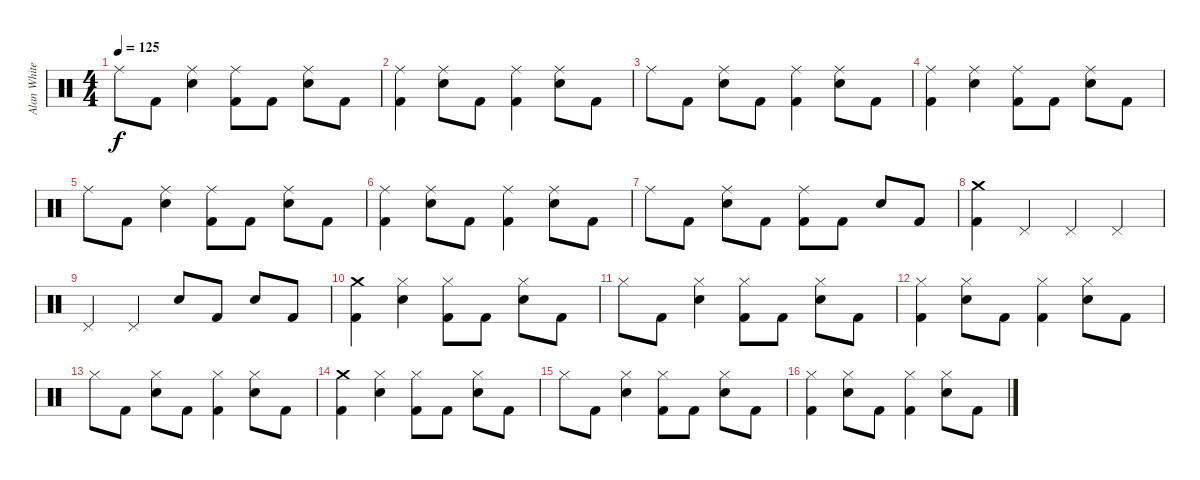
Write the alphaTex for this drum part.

\track ("Alan White" "Alan White") {instrument percussion}
\staff {score}
\articulation defaults
\ts (4 4)
\tempo 125
\clef neutral
\ks c "Ride (middle)".8{dy f} "Kick (hit) 2".8
("Ride (middle)" "Snare (hit) 2").4 ("Ride (middle)" "Kick (hit) 2").8 "Kick (hit) 2".8 ("Ride (middle)" "Snare (hit) 2").8 "Kick (hit) 2".8 |
("Ride (middle)" "Kick (hit) 2").4 ("Ride (middle)" "Snare (hit) 2").8 "Kick (hit) 2".8 ("Ride (middle)" "Kick (hit) 2").4 ("Ride (middle)" "Snare (hit) 2").8 "Kick (hit) 2".8 |
"Ride (middle)".8 "Kick (hit) 2".8 ("Ride (middle)" "Snare (hit) 2").8 "Kick (hit) 2".8 ("Ride (middle)" "Kick (hit) 2").4 ("Ride (middle)" "Snare (hit) 2").8 "Kick (hit) 2".8 |
("Ride (middle)" "Kick (hit) 2").4 ("Ride (middle)" "Snare (hit) 2").4 ("Ride (middle)" "Kick (hit) 2").8 "Kick (hit) 2".8 ("Ride (middle)" "Snare (hit) 2").8 "Kick (hit) 2".8 |
"Ride (middle)".8 "Kick (hit) 2".8 ("Ride (middle)" "Snare (hit) 2").4 ("Ride (middle)" "Kick (hit) 2").8 "Kick (hit) 2".8 ("Ride (middle)" "Snare (hit) 2").8 "Kick (hit) 2".8 |
("Ride (middle)" "Kick (hit) 2").4 ("Ride (middle)" "Snare (hit) 2").8 "Kick (hit) 2".8 ("Ride (middle)" "Kick (hit) 2").4 ("Ride (middle)" "Snare (hit) 2").8 "Kick (hit) 2".8 |
"Ride (middle)".8 "Kick (hit) 2".8 ("Ride (middle)" "Snare (hit) 2").8 "Kick (hit) 2".8 ("Ride (middle)" "Kick (hit) 2").8 "Kick (hit) 2".8 "Snare (hit) 2".8 "Kick (hit) 2".8 |
("Crash medium (hit)" "Kick (hit) 2").4 "Pedal Hi-Hat (hit)".4 "Pedal Hi-Hat (hit)".4 "Pedal Hi-Hat (hit)".4 |
"Pedal Hi-Hat (hit)".4 "Pedal Hi-Hat (hit)".4 "Snare (hit) 2".8 "Kick (hit) 2".8 "Snare (hit) 2".8 "Kick (hit) 2".8 |
("Crash medium (hit)" "Kick (hit) 2").4 ("Hi-Hat (closed)" "Snare (hit) 2").4 ("Hi-Hat (closed)" "Kick (hit) 2").8 "Kick (hit) 2".8 ("Hi-Hat (closed)" "Snare (hit) 2").8 "Kick (hit) 2".8 |
"Hi-Hat (closed)".8 "Kick (hit) 2".8 ("Hi-Hat (closed)" "Snare (hit) 2").4 ("Hi-Hat (closed)" "Kick (hit) 2").8 "Kick (hit) 2".8 ("Hi-Hat (closed)" "Snare (hit) 2").8 "Kick (hit) 2".8 |
("Hi-Hat (closed)" "Kick (hit) 2").4 ("Hi-Hat (closed)" "Snare (hit) 2").8 "Kick (hit) 2".8 ("Hi-Hat (closed)" "Kick (hit) 2").4 ("Hi-Hat (closed)" "Snare (hit) 2").8 "Kick (hit) 2".8 |
"Hi-Hat (closed)".8 "Kick (hit) 2".8 ("Hi-Hat (closed)" "Snare (hit) 2").8 "Kick (hit) 2".8 ("Hi-Hat (closed)" "Kick (hit) 2").4 ("Hi-Hat (closed)" "Snare (hit) 2").8 "Kick (hit) 2".8 |
("Crash medium (hit)" "Kick (hit) 2").4 ("Hi-Hat (closed)" "Snare (hit) 2").4 ("Hi-Hat (closed)" "Kick (hit) 2").8 "Kick (hit) 2".8 ("Hi-Hat (closed)" "Snare (hit) 2").8 "Kick (hit) 2".8 |
"Hi-Hat (closed)".8 "Kick (hit) 2".8 ("Hi-Hat (closed)" "Snare (hit) 2").4 ("Hi-Hat (closed)" "Kick (hit) 2").8 "Kick (hit) 2".8 ("Hi-Hat (closed)" "Snare (hit) 2").8 "Kick (hit) 2".8 |
("Hi-Hat (closed)" "Kick (hit) 2").4 ("Hi-Hat (closed)" "Snare (hit) 2").8 "Kick (hit) 2".8 ("Hi-Hat (closed)" "Kick (hit) 2").4 ("Hi-Hat (closed)" "Snare (hit) 2").8 "Kick (hit) 2".8
